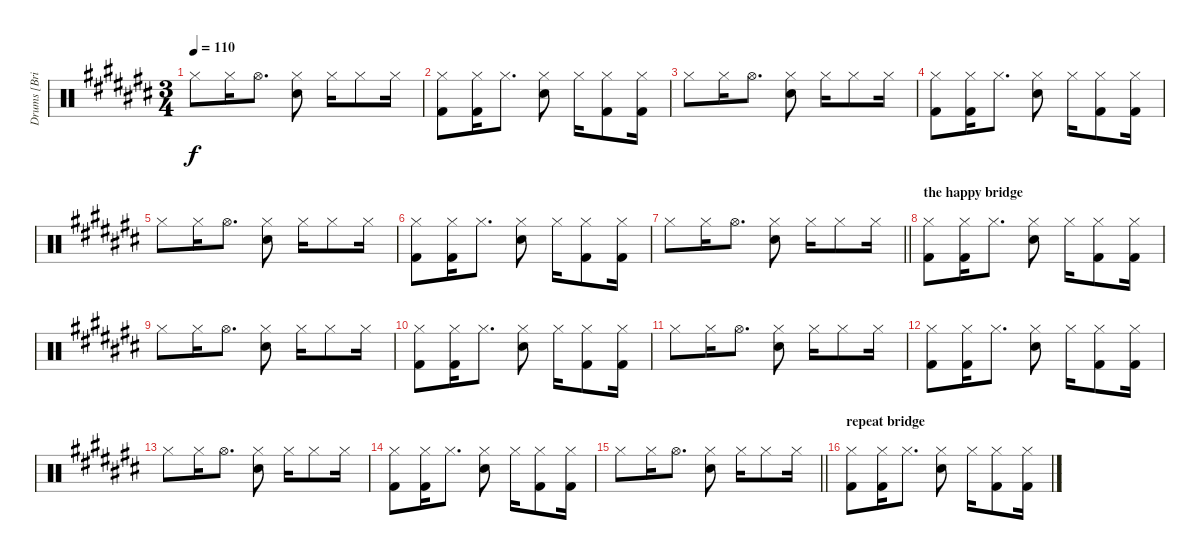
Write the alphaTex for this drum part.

\track ("Drums [Brian \"Brain\" Mantia]" "Drums [Bri") {instrument percussion}
\staff {score}
\articulation defaults
\ts (3 4)
\tempo 110
\clef neutral
\ks c# "Hi-Hat (closed)".8{dy f} "Hi-Hat (closed)".16 "Hi-Hat (open)".8{d}
("Hi-Hat (closed)" "Electric Snare (hit)").8 "Hi-Hat (closed)".16 "Hi-Hat (closed)".8 "Hi-Hat (closed)".16 |
("Hi-Hat (closed)" "Kick (hit) 2").8 ("Hi-Hat (closed)" "Kick (hit) 2").16 "Hi-Hat (closed)".8{d} ("Hi-Hat (closed)" "Electric Snare (hit)").8 "Hi-Hat (closed)".16 ("Hi-Hat (closed)" "Kick (hit) 2").8 ("Hi-Hat (closed)" "Kick (hit) 2").16 |
"Hi-Hat (closed)".8 "Hi-Hat (closed)".16 "Hi-Hat (open)".8{d} ("Hi-Hat (closed)" "Electric Snare (hit)").8 "Hi-Hat (closed)".16 "Hi-Hat (closed)".8 "Hi-Hat (closed)".16 |
("Hi-Hat (closed)" "Kick (hit) 2").8 ("Hi-Hat (closed)" "Kick (hit) 2").16 "Hi-Hat (closed)".8{d} ("Hi-Hat (closed)" "Electric Snare (hit)").8 "Hi-Hat (closed)".16 ("Hi-Hat (closed)" "Kick (hit) 2").8 ("Hi-Hat (closed)" "Kick (hit) 2").16 |
"Hi-Hat (closed)".8 "Hi-Hat (closed)".16 "Hi-Hat (open)".8{d} ("Hi-Hat (closed)" "Electric Snare (hit)").8 "Hi-Hat (closed)".16 "Hi-Hat (closed)".8 "Hi-Hat (closed)".16 |
("Hi-Hat (closed)" "Kick (hit) 2").8 ("Hi-Hat (closed)" "Kick (hit) 2").16 "Hi-Hat (closed)".8{d} ("Hi-Hat (closed)" "Electric Snare (hit)").8 "Hi-Hat (closed)".16 ("Hi-Hat (closed)" "Kick (hit) 2").8 ("Hi-Hat (closed)" "Kick (hit) 2").16 |
\barLineRight lightlight "Hi-Hat (closed)".8 "Hi-Hat (closed)".16 "Hi-Hat (open)".8{d}
("Hi-Hat (closed)" "Electric Snare (hit)").8 "Hi-Hat (closed)".16 "Hi-Hat (closed)".8 "Hi-Hat (closed)".16 |
\section ("" "the happy bridge")
("Hi-Hat (closed)" "Kick (hit) 2").8 ("Hi-Hat (closed)" "Kick (hit) 2").16 "Hi-Hat (closed)".8{d} ("Hi-Hat (closed)" "Electric Snare (hit)").8 "Hi-Hat (closed)".16 ("Hi-Hat (closed)" "Kick (hit) 2").8 ("Hi-Hat (closed)" "Kick (hit) 2").16 |
"Hi-Hat (closed)".8 "Hi-Hat (closed)".16 "Hi-Hat (open)".8{d} ("Hi-Hat (closed)" "Electric Snare (hit)").8 "Hi-Hat (closed)".16 "Hi-Hat (closed)".8 "Hi-Hat (closed)".16 |
("Hi-Hat (closed)" "Kick (hit) 2").8 ("Hi-Hat (closed)" "Kick (hit) 2").16 "Hi-Hat (closed)".8{d} ("Hi-Hat (closed)" "Electric Snare (hit)").8 "Hi-Hat (closed)".16 ("Hi-Hat (closed)" "Kick (hit) 2").8 ("Hi-Hat (closed)" "Kick (hit) 2").16 |
"Hi-Hat (closed)".8 "Hi-Hat (closed)".16 "Hi-Hat (open)".8{d} ("Hi-Hat (closed)" "Electric Snare (hit)").8 "Hi-Hat (closed)".16 "Hi-Hat (closed)".8 "Hi-Hat (closed)".16 |
("Hi-Hat (closed)" "Kick (hit) 2").8 ("Hi-Hat (closed)" "Kick (hit) 2").16 "Hi-Hat (closed)".8{d} ("Hi-Hat (closed)" "Electric Snare (hit)").8 "Hi-Hat (closed)".16 ("Hi-Hat (closed)" "Kick (hit) 2").8 ("Hi-Hat (closed)" "Kick (hit) 2").16 |
"Hi-Hat (closed)".8 "Hi-Hat (closed)".16 "Hi-Hat (open)".8{d} ("Hi-Hat (closed)" "Electric Snare (hit)").8 "Hi-Hat (closed)".16 "Hi-Hat (closed)".8 "Hi-Hat (closed)".16 |
("Hi-Hat (closed)" "Kick (hit) 2").8 ("Hi-Hat (closed)" "Kick (hit) 2").16 "Hi-Hat (closed)".8{d} ("Hi-Hat (closed)" "Electric Snare (hit)").8 "Hi-Hat (closed)".16 ("Hi-Hat (closed)" "Kick (hit) 2").8 ("Hi-Hat (closed)" "Kick (hit) 2").16 |
\barLineRight lightlight "Hi-Hat (closed)".8 "Hi-Hat (closed)".16 "Hi-Hat (open)".8{d}
("Hi-Hat (closed)" "Electric Snare (hit)").8 "Hi-Hat (closed)".16 "Hi-Hat (closed)".8 "Hi-Hat (closed)".16 |
\section ("" "repeat bridge")
("Hi-Hat (closed)" "Kick (hit) 2").8 ("Hi-Hat (closed)" "Kick (hit) 2").16 "Hi-Hat (closed)".8{d} ("Hi-Hat (closed)" "Electric Snare (hit)").8 "Hi-Hat (closed)".16 ("Hi-Hat (closed)" "Kick (hit) 2").8 ("Hi-Hat (closed)" "Kick (hit) 2").16
